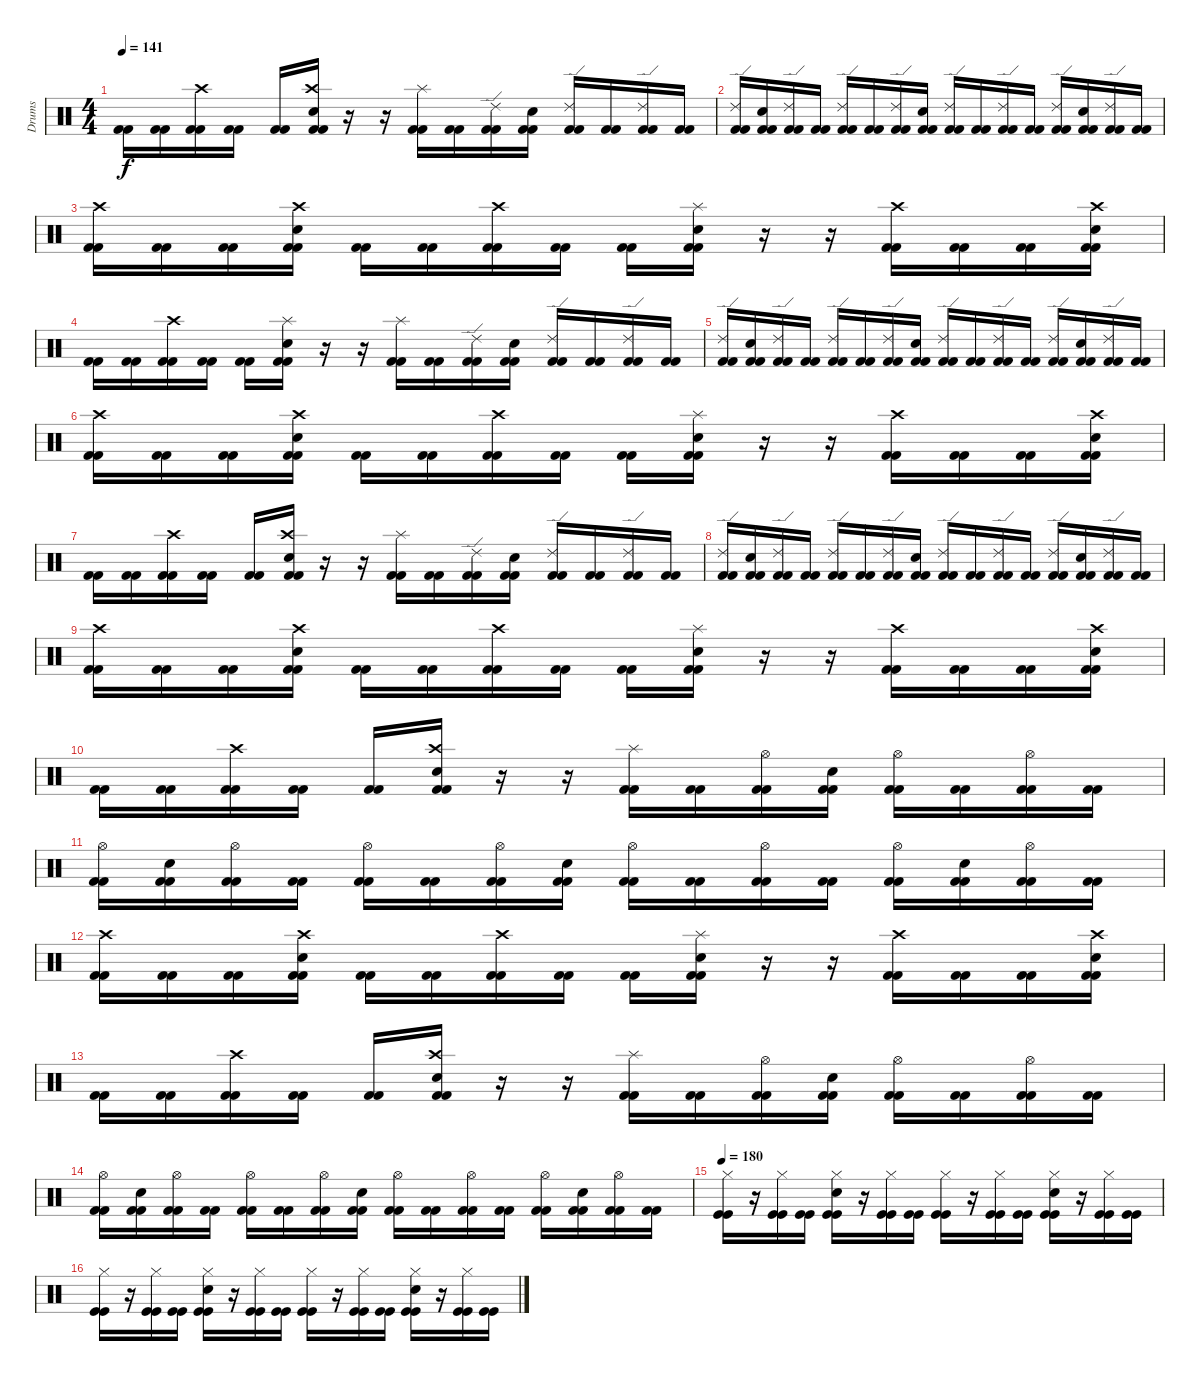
\track ("Drums" "Drums") {instrument percussion}
\staff {score}
\articulation defaults
\ts (4 4)
\tempo 141
\clef neutral
\ks c
("Kick (hit) 2" "Kick (hit) 2").16{dy f} ("Kick (hit) 2" "Kick (hit) 2").16 ("Crash high (hit)" "Kick (hit) 2" "Kick (hit) 2").16 ("Kick (hit) 2" "Kick (hit) 2").16 ("Kick (hit) 2" "Kick (hit) 2").16 ("Crash high (hit)" "Snare (hit) 2" "Kick (hit) 2" "Kick (hit) 2").16 r.16 r.16 ("Splash (hit)" "Kick (hit) 2" "Kick (hit) 2").16 ("Kick (hit) 2" "Kick (hit) 2").16 ("Ride (edge) 2" "Kick (hit) 2" "Kick (hit) 2").16 ("Snare (hit) 2" "Kick (hit) 2" "Kick (hit) 2").16 ("Ride (edge) 2" "Kick (hit) 2" "Kick (hit) 2").16 ("Kick (hit) 2" "Kick (hit) 2").16 ("Ride (edge) 2" "Kick (hit) 2" "Kick (hit) 2").16 ("Kick (hit) 2" "Kick (hit) 2").16 |
("Ride (edge) 2" "Kick (hit) 2" "Kick (hit) 2").16 ("Snare (hit) 2" "Kick (hit) 2" "Kick (hit) 2").16 ("Ride (edge) 2" "Kick (hit) 2" "Kick (hit) 2").16 ("Kick (hit) 2" "Kick (hit) 2").16 ("Ride (edge) 2" "Kick (hit) 2" "Kick (hit) 2").16 ("Kick (hit) 2" "Kick (hit) 2").16 ("Ride (edge) 2" "Kick (hit) 2" "Kick (hit) 2").16 ("Snare (hit) 2" "Kick (hit) 2" "Kick (hit) 2").16 ("Ride (edge) 2" "Kick (hit) 2" "Kick (hit) 2").16 ("Kick (hit) 2" "Kick (hit) 2").16 ("Ride (edge) 2" "Kick (hit) 2" "Kick (hit) 2").16 ("Kick (hit) 2" "Kick (hit) 2").16 ("Ride (edge) 2" "Kick (hit) 2" "Kick (hit) 2").16 ("Snare (hit) 2" "Kick (hit) 2" "Kick (hit) 2").16 ("Ride (edge) 2" "Kick (hit) 2" "Kick (hit) 2").16 ("Kick (hit) 2" "Kick (hit) 2").16 |
("Crash high (hit)" "Kick (hit) 2" "Kick (hit) 2").16 ("Kick (hit) 2" "Kick (hit) 2").16 ("Kick (hit) 2" "Kick (hit) 2").16 ("Crash high (hit)" "Snare (hit) 2" "Kick (hit) 2" "Kick (hit) 2").16 ("Kick (hit) 2" "Kick (hit) 2").16 ("Kick (hit) 2" "Kick (hit) 2").16 ("Crash high (hit)" "Kick (hit) 2" "Kick (hit) 2").16 ("Kick (hit) 2" "Kick (hit) 2").16 ("Kick (hit) 2" "Kick (hit) 2").16 ("Splash (hit)" "Snare (hit) 2" "Kick (hit) 2" "Kick (hit) 2").16 r.16 r.16 ("Crash high (hit)" "Kick (hit) 2" "Kick (hit) 2").16 ("Kick (hit) 2" "Kick (hit) 2").16 ("Kick (hit) 2" "Kick (hit) 2").16 ("Crash high (hit)" "Snare (hit) 2" "Kick (hit) 2" "Kick (hit) 2").16 |
("Kick (hit) 2" "Kick (hit) 2").16 ("Kick (hit) 2" "Kick (hit) 2").16 ("Crash high (hit)" "Kick (hit) 2" "Kick (hit) 2").16 ("Kick (hit) 2" "Kick (hit) 2").16 ("Kick (hit) 2" "Kick (hit) 2").16 ("Splash (hit)" "Snare (hit) 2" "Kick (hit) 2" "Kick (hit) 2").16 r.16 r.16 ("Splash (hit)" "Kick (hit) 2" "Kick (hit) 2").16 ("Kick (hit) 2" "Kick (hit) 2").16 ("Ride (edge) 2" "Kick (hit) 2" "Kick (hit) 2").16 ("Snare (hit) 2" "Kick (hit) 2" "Kick (hit) 2").16 ("Ride (edge) 2" "Kick (hit) 2" "Kick (hit) 2").16 ("Kick (hit) 2" "Kick (hit) 2").16 ("Ride (edge) 2" "Kick (hit) 2" "Kick (hit) 2").16 ("Kick (hit) 2" "Kick (hit) 2").16 |
("Ride (edge) 2" "Kick (hit) 2" "Kick (hit) 2").16 ("Snare (hit) 2" "Kick (hit) 2" "Kick (hit) 2").16 ("Ride (edge) 2" "Kick (hit) 2" "Kick (hit) 2").16 ("Kick (hit) 2" "Kick (hit) 2").16 ("Ride (edge) 2" "Kick (hit) 2" "Kick (hit) 2").16 ("Kick (hit) 2" "Kick (hit) 2").16 ("Ride (edge) 2" "Kick (hit) 2" "Kick (hit) 2").16 ("Snare (hit) 2" "Kick (hit) 2" "Kick (hit) 2").16 ("Ride (edge) 2" "Kick (hit) 2" "Kick (hit) 2").16 ("Kick (hit) 2" "Kick (hit) 2").16 ("Ride (edge) 2" "Kick (hit) 2" "Kick (hit) 2").16 ("Kick (hit) 2" "Kick (hit) 2").16 ("Ride (edge) 2" "Kick (hit) 2" "Kick (hit) 2").16 ("Snare (hit) 2" "Kick (hit) 2" "Kick (hit) 2").16 ("Ride (edge) 2" "Kick (hit) 2" "Kick (hit) 2").16 ("Kick (hit) 2" "Kick (hit) 2").16 |
("Crash high (hit)" "Kick (hit) 2" "Kick (hit) 2").16 ("Kick (hit) 2" "Kick (hit) 2").16 ("Kick (hit) 2" "Kick (hit) 2").16 ("Crash high (hit)" "Snare (hit) 2" "Kick (hit) 2" "Kick (hit) 2").16 ("Kick (hit) 2" "Kick (hit) 2").16 ("Kick (hit) 2" "Kick (hit) 2").16 ("Crash high (hit)" "Kick (hit) 2" "Kick (hit) 2").16 ("Kick (hit) 2" "Kick (hit) 2").16 ("Kick (hit) 2" "Kick (hit) 2").16 ("Splash (hit)" "Snare (hit) 2" "Kick (hit) 2" "Kick (hit) 2").16 r.16 r.16 ("Crash high (hit)" "Kick (hit) 2" "Kick (hit) 2").16 ("Kick (hit) 2" "Kick (hit) 2").16 ("Kick (hit) 2" "Kick (hit) 2").16 ("Crash high (hit)" "Snare (hit) 2" "Kick (hit) 2" "Kick (hit) 2").16 |
("Kick (hit) 2" "Kick (hit) 2").16 ("Kick (hit) 2" "Kick (hit) 2").16 ("Crash high (hit)" "Kick (hit) 2" "Kick (hit) 2").16 ("Kick (hit) 2" "Kick (hit) 2").16 ("Kick (hit) 2" "Kick (hit) 2").16 ("Crash high (hit)" "Snare (hit) 2" "Kick (hit) 2" "Kick (hit) 2").16 r.16 r.16 ("Splash (hit)" "Kick (hit) 2" "Kick (hit) 2").16 ("Kick (hit) 2" "Kick (hit) 2").16 ("Ride (edge) 2" "Kick (hit) 2" "Kick (hit) 2").16 ("Snare (hit) 2" "Kick (hit) 2" "Kick (hit) 2").16 ("Ride (edge) 2" "Kick (hit) 2" "Kick (hit) 2").16 ("Kick (hit) 2" "Kick (hit) 2").16 ("Ride (edge) 2" "Kick (hit) 2" "Kick (hit) 2").16 ("Kick (hit) 2" "Kick (hit) 2").16 |
("Ride (edge) 2" "Kick (hit) 2" "Kick (hit) 2").16 ("Snare (hit) 2" "Kick (hit) 2" "Kick (hit) 2").16 ("Ride (edge) 2" "Kick (hit) 2" "Kick (hit) 2").16 ("Kick (hit) 2" "Kick (hit) 2").16 ("Ride (edge) 2" "Kick (hit) 2" "Kick (hit) 2").16 ("Kick (hit) 2" "Kick (hit) 2").16 ("Ride (edge) 2" "Kick (hit) 2" "Kick (hit) 2").16 ("Snare (hit) 2" "Kick (hit) 2" "Kick (hit) 2").16 ("Ride (edge) 2" "Kick (hit) 2" "Kick (hit) 2").16 ("Kick (hit) 2" "Kick (hit) 2").16 ("Ride (edge) 2" "Kick (hit) 2" "Kick (hit) 2").16 ("Kick (hit) 2" "Kick (hit) 2").16 ("Ride (edge) 2" "Kick (hit) 2" "Kick (hit) 2").16 ("Snare (hit) 2" "Kick (hit) 2" "Kick (hit) 2").16 ("Ride (edge) 2" "Kick (hit) 2" "Kick (hit) 2").16 ("Kick (hit) 2" "Kick (hit) 2").16 |
("Crash high (hit)" "Kick (hit) 2" "Kick (hit) 2").16 ("Kick (hit) 2" "Kick (hit) 2").16 ("Kick (hit) 2" "Kick (hit) 2").16 ("Crash high (hit)" "Snare (hit) 2" "Kick (hit) 2" "Kick (hit) 2").16 ("Kick (hit) 2" "Kick (hit) 2").16 ("Kick (hit) 2" "Kick (hit) 2").16 ("Crash high (hit)" "Kick (hit) 2" "Kick (hit) 2").16 ("Kick (hit) 2" "Kick (hit) 2").16 ("Kick (hit) 2" "Kick (hit) 2").16 ("Splash (hit)" "Snare (hit) 2" "Kick (hit) 2" "Kick (hit) 2").16 r.16 r.16 ("Crash high (hit)" "Kick (hit) 2" "Kick (hit) 2").16 ("Kick (hit) 2" "Kick (hit) 2").16 ("Kick (hit) 2" "Kick (hit) 2").16 ("Crash high (hit)" "Snare (hit) 2" "Kick (hit) 2" "Kick (hit) 2").16 |
("Kick (hit) 2" "Kick (hit) 2").16 ("Kick (hit) 2" "Kick (hit) 2").16 ("Crash high (hit)" "Kick (hit) 2" "Kick (hit) 2").16 ("Kick (hit) 2" "Kick (hit) 2").16 ("Kick (hit) 2" "Kick (hit) 2").16 ("Crash high (hit)" "Snare (hit) 2" "Kick (hit) 2" "Kick (hit) 2").16 r.16 r.16 ("Splash (hit)" "Kick (hit) 2" "Kick (hit) 2").16 ("Kick (hit) 2" "Kick (hit) 2").16 ("Hi-Hat (open)" "Kick (hit) 2" "Kick (hit) 2").16 ("Snare (hit) 2" "Kick (hit) 2" "Kick (hit) 2").16 ("Hi-Hat (open)" "Kick (hit) 2" "Kick (hit) 2").16 ("Kick (hit) 2" "Kick (hit) 2").16 ("Hi-Hat (open)" "Kick (hit) 2" "Kick (hit) 2").16 ("Kick (hit) 2" "Kick (hit) 2").16 |
("Hi-Hat (open)" "Kick (hit) 2" "Kick (hit) 2").16 ("Snare (hit) 2" "Kick (hit) 2" "Kick (hit) 2").16 ("Hi-Hat (open)" "Kick (hit) 2" "Kick (hit) 2").16 ("Kick (hit) 2" "Kick (hit) 2").16 ("Hi-Hat (open)" "Kick (hit) 2" "Kick (hit) 2").16 ("Kick (hit) 2" "Kick (hit) 2").16 ("Hi-Hat (open)" "Kick (hit) 2" "Kick (hit) 2").16 ("Snare (hit) 2" "Kick (hit) 2" "Kick (hit) 2").16 ("Hi-Hat (open)" "Kick (hit) 2" "Kick (hit) 2").16 ("Kick (hit) 2" "Kick (hit) 2").16 ("Hi-Hat (open)" "Kick (hit) 2" "Kick (hit) 2").16 ("Kick (hit) 2" "Kick (hit) 2").16 ("Hi-Hat (open)" "Kick (hit) 2" "Kick (hit) 2").16 ("Snare (hit) 2" "Kick (hit) 2" "Kick (hit) 2").16 ("Hi-Hat (open)" "Kick (hit) 2" "Kick (hit) 2").16 ("Kick (hit) 2" "Kick (hit) 2").16 |
("Crash high (hit)" "Kick (hit) 2" "Kick (hit) 2").16 ("Kick (hit) 2" "Kick (hit) 2").16 ("Kick (hit) 2" "Kick (hit) 2").16 ("Crash high (hit)" "Snare (hit) 2" "Kick (hit) 2" "Kick (hit) 2").16 ("Kick (hit) 2" "Kick (hit) 2").16 ("Kick (hit) 2" "Kick (hit) 2").16 ("Crash high (hit)" "Kick (hit) 2" "Kick (hit) 2").16 ("Kick (hit) 2" "Kick (hit) 2").16 ("Kick (hit) 2" "Kick (hit) 2").16 ("Splash (hit)" "Snare (hit) 2" "Kick (hit) 2" "Kick (hit) 2").16 r.16 r.16 ("Crash high (hit)" "Kick (hit) 2" "Kick (hit) 2").16 ("Kick (hit) 2" "Kick (hit) 2").16 ("Kick (hit) 2" "Kick (hit) 2").16 ("Crash high (hit)" "Snare (hit) 2" "Kick (hit) 2" "Kick (hit) 2").16 |
("Kick (hit) 2" "Kick (hit) 2").16 ("Kick (hit) 2" "Kick (hit) 2").16 ("Crash high (hit)" "Kick (hit) 2" "Kick (hit) 2").16 ("Kick (hit) 2" "Kick (hit) 2").16 ("Kick (hit) 2" "Kick (hit) 2").16 ("Crash high (hit)" "Snare (hit) 2" "Kick (hit) 2" "Kick (hit) 2").16 r.16 r.16 ("Splash (hit)" "Kick (hit) 2" "Kick (hit) 2").16 ("Kick (hit) 2" "Kick (hit) 2").16 ("Hi-Hat (open)" "Kick (hit) 2" "Kick (hit) 2").16 ("Snare (hit) 2" "Kick (hit) 2" "Kick (hit) 2").16 ("Hi-Hat (open)" "Kick (hit) 2" "Kick (hit) 2").16 ("Kick (hit) 2" "Kick (hit) 2").16 ("Hi-Hat (open)" "Kick (hit) 2" "Kick (hit) 2").16 ("Kick (hit) 2" "Kick (hit) 2").16 |
("Hi-Hat (open)" "Kick (hit) 2" "Kick (hit) 2").16 ("Snare (hit) 2" "Kick (hit) 2" "Kick (hit) 2").16 ("Hi-Hat (open)" "Kick (hit) 2" "Kick (hit) 2").16 ("Kick (hit) 2" "Kick (hit) 2").16 ("Hi-Hat (open)" "Kick (hit) 2" "Kick (hit) 2").16 ("Kick (hit) 2" "Kick (hit) 2").16 ("Hi-Hat (open)" "Kick (hit) 2" "Kick (hit) 2").16 ("Snare (hit) 2" "Kick (hit) 2" "Kick (hit) 2").16 ("Hi-Hat (open)" "Kick (hit) 2" "Kick (hit) 2").16 ("Kick (hit) 2" "Kick (hit) 2").16 ("Hi-Hat (open)" "Kick (hit) 2" "Kick (hit) 2").16 ("Kick (hit) 2" "Kick (hit) 2").16 ("Hi-Hat (open)" "Kick (hit) 2" "Kick (hit) 2").16 ("Snare (hit) 2" "Kick (hit) 2" "Kick (hit) 2").16 ("Hi-Hat (open)" "Kick (hit) 2" "Kick (hit) 2").16 ("Kick (hit) 2" "Kick (hit) 2").16 |
\tempo 180
("Hi-Hat (closed)" "Kick (hit)" "Kick (hit)").16 r.16 ("Hi-Hat (closed)" "Kick (hit)" "Kick (hit)").16 ("Kick (hit)" "Kick (hit)").16 ("Snare (hit) 2" "Hi-Hat (closed)" "Kick (hit)" "Kick (hit)").16 r.16 ("Hi-Hat (closed)" "Kick (hit)" "Kick (hit)").16 ("Kick (hit)" "Kick (hit)").16 ("Hi-Hat (closed)" "Kick (hit)" "Kick (hit)").16 r.16 ("Hi-Hat (closed)" "Kick (hit)" "Kick (hit)").16 ("Kick (hit)" "Kick (hit)").16 ("Snare (hit) 2" "Hi-Hat (closed)" "Kick (hit)" "Kick (hit)").16 r.16 ("Hi-Hat (closed)" "Kick (hit)" "Kick (hit)").16 ("Kick (hit)" "Kick (hit)").16 |
("Hi-Hat (closed)" "Kick (hit)" "Kick (hit)").16 r.16 ("Hi-Hat (closed)" "Kick (hit)" "Kick (hit)").16 ("Kick (hit)" "Kick (hit)").16 ("Snare (hit) 2" "Hi-Hat (closed)" "Kick (hit)" "Kick (hit)").16 r.16 ("Hi-Hat (closed)" "Kick (hit)" "Kick (hit)").16 ("Kick (hit)" "Kick (hit)").16 ("Hi-Hat (closed)" "Kick (hit)" "Kick (hit)").16 r.16 ("Hi-Hat (closed)" "Kick (hit)" "Kick (hit)").16 ("Kick (hit)" "Kick (hit)").16 ("Snare (hit) 2" "Hi-Hat (closed)" "Kick (hit)" "Kick (hit)").16 r.16 ("Hi-Hat (closed)" "Kick (hit)" "Kick (hit)").16 ("Kick (hit)" "Kick (hit)").16
